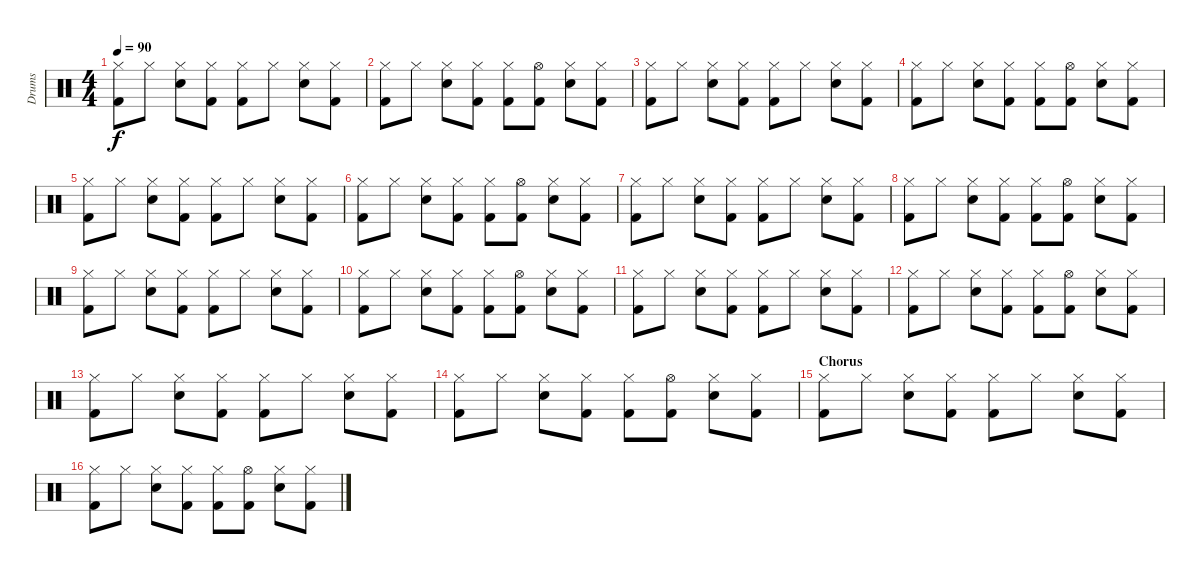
\track ("Drums" "Drums") {instrument percussion}
\staff {score}
\articulation defaults
\ts (4 4)
\tempo 90
\clef neutral
\ks c
("Hi-Hat (closed)" "Kick (hit) 2").8{dy f} "Hi-Hat (closed)".8 ("Hi-Hat (closed)" "Electric Snare (hit)").8 ("Hi-Hat (closed)" "Kick (hit) 2").8 ("Hi-Hat (closed)" "Kick (hit) 2").8 "Hi-Hat (closed)".8 ("Hi-Hat (closed)" "Electric Snare (hit)").8 ("Hi-Hat (closed)" "Kick (hit) 2").8 |
("Hi-Hat (closed)" "Kick (hit) 2").8 "Hi-Hat (closed)".8 ("Hi-Hat (closed)" "Electric Snare (hit)").8 ("Hi-Hat (closed)" "Kick (hit) 2").8 ("Hi-Hat (closed)" "Kick (hit) 2").8 ("Hi-Hat (open)" "Kick (hit) 2").8 ("Hi-Hat (closed)" "Electric Snare (hit)").8 ("Hi-Hat (closed)" "Kick (hit) 2").8 |
("Hi-Hat (closed)" "Kick (hit) 2").8 "Hi-Hat (closed)".8 ("Hi-Hat (closed)" "Electric Snare (hit)").8 ("Hi-Hat (closed)" "Kick (hit) 2").8 ("Hi-Hat (closed)" "Kick (hit) 2").8 "Hi-Hat (closed)".8 ("Hi-Hat (closed)" "Electric Snare (hit)").8 ("Hi-Hat (closed)" "Kick (hit) 2").8 |
("Hi-Hat (closed)" "Kick (hit) 2").8 "Hi-Hat (closed)".8 ("Hi-Hat (closed)" "Electric Snare (hit)").8 ("Hi-Hat (closed)" "Kick (hit) 2").8 ("Hi-Hat (closed)" "Kick (hit) 2").8 ("Hi-Hat (open)" "Kick (hit) 2").8 ("Hi-Hat (closed)" "Electric Snare (hit)").8 ("Hi-Hat (closed)" "Kick (hit) 2").8 |
("Hi-Hat (closed)" "Kick (hit) 2").8 "Hi-Hat (closed)".8 ("Hi-Hat (closed)" "Electric Snare (hit)").8 ("Hi-Hat (closed)" "Kick (hit) 2").8 ("Hi-Hat (closed)" "Kick (hit) 2").8 "Hi-Hat (closed)".8 ("Hi-Hat (closed)" "Electric Snare (hit)").8 ("Hi-Hat (closed)" "Kick (hit) 2").8 |
("Hi-Hat (closed)" "Kick (hit) 2").8 "Hi-Hat (closed)".8 ("Hi-Hat (closed)" "Electric Snare (hit)").8 ("Hi-Hat (closed)" "Kick (hit) 2").8 ("Hi-Hat (closed)" "Kick (hit) 2").8 ("Hi-Hat (open)" "Kick (hit) 2").8 ("Hi-Hat (closed)" "Electric Snare (hit)").8 ("Hi-Hat (closed)" "Kick (hit) 2").8 |
("Hi-Hat (closed)" "Kick (hit) 2").8 "Hi-Hat (closed)".8 ("Hi-Hat (closed)" "Electric Snare (hit)").8 ("Hi-Hat (closed)" "Kick (hit) 2").8 ("Hi-Hat (closed)" "Kick (hit) 2").8 "Hi-Hat (closed)".8 ("Hi-Hat (closed)" "Electric Snare (hit)").8 ("Hi-Hat (closed)" "Kick (hit) 2").8 |
("Hi-Hat (closed)" "Kick (hit) 2").8 "Hi-Hat (closed)".8 ("Hi-Hat (closed)" "Electric Snare (hit)").8 ("Hi-Hat (closed)" "Kick (hit) 2").8 ("Hi-Hat (closed)" "Kick (hit) 2").8 ("Hi-Hat (open)" "Kick (hit) 2").8 ("Hi-Hat (closed)" "Electric Snare (hit)").8 ("Hi-Hat (closed)" "Kick (hit) 2").8 |
("Hi-Hat (closed)" "Kick (hit) 2").8 "Hi-Hat (closed)".8 ("Hi-Hat (closed)" "Electric Snare (hit)").8 ("Hi-Hat (closed)" "Kick (hit) 2").8 ("Hi-Hat (closed)" "Kick (hit) 2").8 "Hi-Hat (closed)".8 ("Hi-Hat (closed)" "Electric Snare (hit)").8 ("Hi-Hat (closed)" "Kick (hit) 2").8 |
("Hi-Hat (closed)" "Kick (hit) 2").8 "Hi-Hat (closed)".8 ("Hi-Hat (closed)" "Electric Snare (hit)").8 ("Hi-Hat (closed)" "Kick (hit) 2").8 ("Hi-Hat (closed)" "Kick (hit) 2").8 ("Hi-Hat (open)" "Kick (hit) 2").8 ("Hi-Hat (closed)" "Electric Snare (hit)").8 ("Hi-Hat (closed)" "Kick (hit) 2").8 |
("Hi-Hat (closed)" "Kick (hit) 2").8 "Hi-Hat (closed)".8 ("Hi-Hat (closed)" "Electric Snare (hit)").8 ("Hi-Hat (closed)" "Kick (hit) 2").8 ("Hi-Hat (closed)" "Kick (hit) 2").8 "Hi-Hat (closed)".8 ("Hi-Hat (closed)" "Electric Snare (hit)").8 ("Hi-Hat (closed)" "Kick (hit) 2").8 |
("Hi-Hat (closed)" "Kick (hit) 2").8 "Hi-Hat (closed)".8 ("Hi-Hat (closed)" "Electric Snare (hit)").8 ("Hi-Hat (closed)" "Kick (hit) 2").8 ("Hi-Hat (closed)" "Kick (hit) 2").8 ("Hi-Hat (open)" "Kick (hit) 2").8 ("Hi-Hat (closed)" "Electric Snare (hit)").8 ("Hi-Hat (closed)" "Kick (hit) 2").8 |
("Hi-Hat (closed)" "Kick (hit) 2").8 "Hi-Hat (closed)".8 ("Hi-Hat (closed)" "Electric Snare (hit)").8 ("Hi-Hat (closed)" "Kick (hit) 2").8 ("Hi-Hat (closed)" "Kick (hit) 2").8 "Hi-Hat (closed)".8 ("Hi-Hat (closed)" "Electric Snare (hit)").8 ("Hi-Hat (closed)" "Kick (hit) 2").8 |
("Hi-Hat (closed)" "Kick (hit) 2").8 "Hi-Hat (closed)".8 ("Hi-Hat (closed)" "Electric Snare (hit)").8 ("Hi-Hat (closed)" "Kick (hit) 2").8 ("Hi-Hat (closed)" "Kick (hit) 2").8 ("Hi-Hat (open)" "Kick (hit) 2").8 ("Hi-Hat (closed)" "Electric Snare (hit)").8 ("Hi-Hat (closed)" "Kick (hit) 2").8 |
\section ("" "Chorus")
("Hi-Hat (closed)" "Kick (hit) 2").8 "Hi-Hat (closed)".8 ("Hi-Hat (closed)" "Electric Snare (hit)").8 ("Hi-Hat (closed)" "Kick (hit) 2").8 ("Hi-Hat (closed)" "Kick (hit) 2").8 "Hi-Hat (closed)".8 ("Hi-Hat (closed)" "Electric Snare (hit)").8 ("Hi-Hat (closed)" "Kick (hit) 2").8 |
("Hi-Hat (closed)" "Kick (hit) 2").8 "Hi-Hat (closed)".8 ("Hi-Hat (closed)" "Electric Snare (hit)").8 ("Hi-Hat (closed)" "Kick (hit) 2").8 ("Hi-Hat (closed)" "Kick (hit) 2").8 ("Hi-Hat (open)" "Kick (hit) 2").8 ("Hi-Hat (closed)" "Electric Snare (hit)").8 ("Hi-Hat (closed)" "Kick (hit) 2").8
